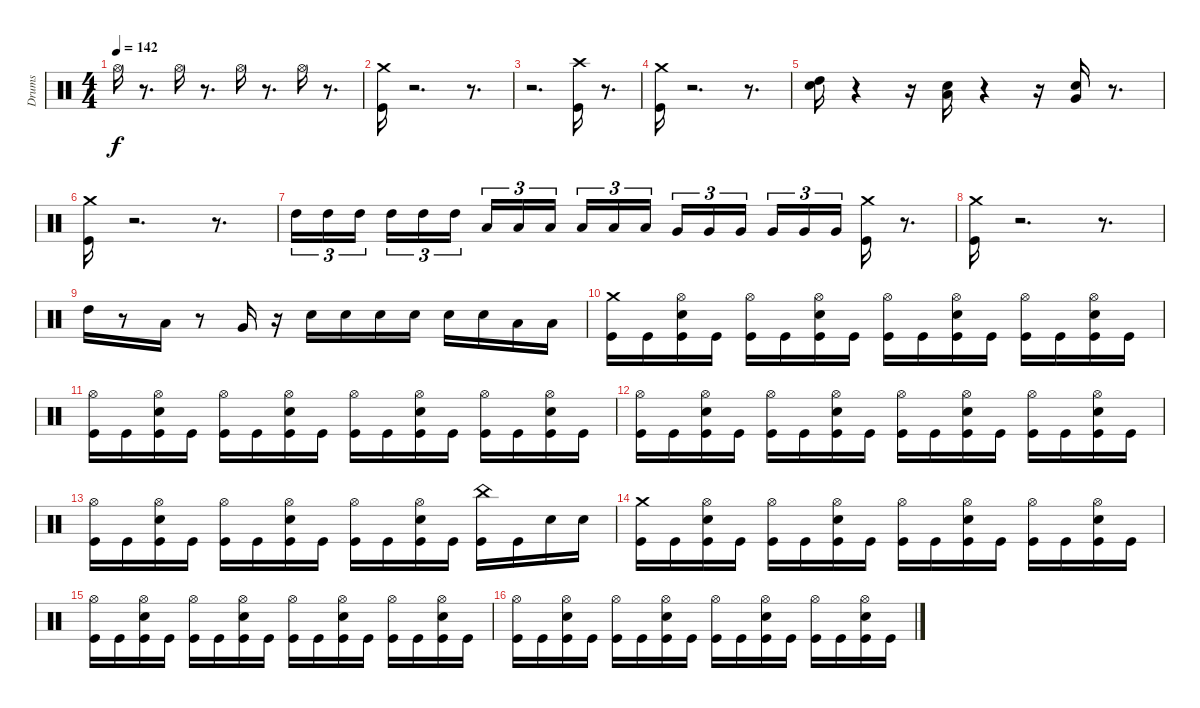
\track ("Drums" "Drums") {instrument percussion}
\staff {score}
\articulation defaults
\ts (4 4)
\tempo 142
\clef neutral
\ks c "Hi-Hat (open)".16{dy f}
r.8{d} "Hi-Hat (open)".16 r.8{d} "Hi-Hat (open)".16 r.8{d} "Hi-Hat (open)".16 r.8{d} |
("Kick (hit)" "Crash medium (hit)").16 r.2{d} r.8{d} |
r.2{d} ("Crash high (hit)" "Kick (hit)").16 r.8{d} |
("Crash medium (hit)" "Kick (hit)").16 r.2{d} r.8{d} |
("Electric Snare (hit)" "High Tom (hit)").16 r.4 r.16 ("Low Tom (hit)" "Electric Snare (hit)").16 r.4 r.16 ("Electric Snare (hit)" "Very Low Tom (hit)").16 r.8{d} |
("Crash medium (hit)" "Kick (hit)").16 r.2{d} r.8{d} |
"High Tom (hit)".16{tu (3 2)} "High Tom (hit)".16{tu (3 2)} "High Tom (hit)".16{tu (3 2)} "High Tom (hit)".16{tu (3 2)} "High Tom (hit)".16{tu (3 2)} "High Tom (hit)".16{tu (3 2)} "Low Tom (hit)".16{tu (3 2)} "Low Tom (hit)".16{tu (3 2)} "Low Tom (hit)".16{tu (3 2)} "Low Tom (hit)".16{tu (3 2)} "Low Tom (hit)".16{tu (3 2)} "Low Tom (hit)".16{tu (3 2)} "Very Low Tom (hit)".16{tu (3 2)} "Very Low Tom (hit)".16{tu (3 2)} "Very Low Tom (hit)".16{tu (3 2)} "Very Low Tom (hit)".16{tu (3 2)} "Very Low Tom (hit)".16{tu (3 2)} "Very Low Tom (hit)".16{tu (3 2)} ("Crash medium (hit)" "Kick (hit)").16 r.8{d} |
("Crash medium (hit)" "Kick (hit)").16 r.2{d} r.8{d} |
"High Tom (hit)".16 r.8 "Low Tom (hit)".16 r.8 "Very Low Tom (hit)".16 r.16 "Electric Snare (hit)".16 "Electric Snare (hit)".16 "Electric Snare (hit)".16 "Electric Snare (hit)".16 "Electric Snare (hit)".16 "Electric Snare (hit)".16 "Low Tom (hit)".16 "Low Tom (hit)".16 |
("Crash medium (hit)" "Kick (hit)").16 "Kick (hit)".16 ("Electric Snare (hit)" "Hi-Hat (open)" "Kick (hit)").16 "Kick (hit)".16 ("Hi-Hat (open)" "Kick (hit)").16 "Kick (hit)".16 ("Electric Snare (hit)" "Hi-Hat (open)" "Kick (hit)").16 "Kick (hit)".16 ("Hi-Hat (open)" "Kick (hit)").16 "Kick (hit)".16 ("Electric Snare (hit)" "Hi-Hat (open)" "Kick (hit)").16 "Kick (hit)".16 ("Hi-Hat (open)" "Kick (hit)").16 "Kick (hit)".16 ("Electric Snare (hit)" "Hi-Hat (open)" "Kick (hit)").16 "Kick (hit)".16 |
("Hi-Hat (open)" "Kick (hit)").16 "Kick (hit)".16 ("Electric Snare (hit)" "Hi-Hat (open)" "Kick (hit)").16 "Kick (hit)".16 ("Hi-Hat (open)" "Kick (hit)").16 "Kick (hit)".16 ("Electric Snare (hit)" "Hi-Hat (open)" "Kick (hit)").16 "Kick (hit)".16 ("Hi-Hat (open)" "Kick (hit)").16 "Kick (hit)".16 ("Electric Snare (hit)" "Hi-Hat (open)" "Kick (hit)").16 "Kick (hit)".16 ("Hi-Hat (open)" "Kick (hit)").16 "Kick (hit)".16 ("Electric Snare (hit)" "Hi-Hat (open)" "Kick (hit)").16 "Kick (hit)".16 |
("Hi-Hat (open)" "Kick (hit)").16 "Kick (hit)".16 ("Electric Snare (hit)" "Hi-Hat (open)" "Kick (hit)").16 "Kick (hit)".16 ("Hi-Hat (open)" "Kick (hit)").16 "Kick (hit)".16 ("Electric Snare (hit)" "Hi-Hat (open)" "Kick (hit)").16 "Kick (hit)".16 ("Hi-Hat (open)" "Kick (hit)").16 "Kick (hit)".16 ("Electric Snare (hit)" "Hi-Hat (open)" "Kick (hit)").16 "Kick (hit)".16 ("Hi-Hat (open)" "Kick (hit)").16 "Kick (hit)".16 ("Electric Snare (hit)" "Hi-Hat (open)" "Kick (hit)").16 "Kick (hit)".16 |
("Hi-Hat (open)" "Kick (hit)").16 "Kick (hit)".16 ("Electric Snare (hit)" "Hi-Hat (open)" "Kick (hit)").16 "Kick (hit)".16 ("Hi-Hat (open)" "Kick (hit)").16 "Kick (hit)".16 ("Electric Snare (hit)" "Hi-Hat (open)" "Kick (hit)").16 "Kick (hit)".16 ("Hi-Hat (open)" "Kick (hit)").16 "Kick (hit)".16 ("Electric Snare (hit)" "Hi-Hat (open)" "Kick (hit)").16 "Kick (hit)".16 ("China (hit)" "Kick (hit)").16 "Kick (hit)".16 "Electric Snare (hit)".16 "Electric Snare (hit)".16 |
("Crash medium (hit)" "Kick (hit)").16 "Kick (hit)".16 ("Electric Snare (hit)" "Hi-Hat (open)" "Kick (hit)").16 "Kick (hit)".16 ("Hi-Hat (open)" "Kick (hit)").16 "Kick (hit)".16 ("Electric Snare (hit)" "Hi-Hat (open)" "Kick (hit)").16 "Kick (hit)".16 ("Hi-Hat (open)" "Kick (hit)").16 "Kick (hit)".16 ("Electric Snare (hit)" "Hi-Hat (open)" "Kick (hit)").16 "Kick (hit)".16 ("Hi-Hat (open)" "Kick (hit)").16 "Kick (hit)".16 ("Electric Snare (hit)" "Hi-Hat (open)" "Kick (hit)").16 "Kick (hit)".16 |
("Hi-Hat (open)" "Kick (hit)").16 "Kick (hit)".16 ("Electric Snare (hit)" "Hi-Hat (open)" "Kick (hit)").16 "Kick (hit)".16 ("Hi-Hat (open)" "Kick (hit)").16 "Kick (hit)".16 ("Electric Snare (hit)" "Hi-Hat (open)" "Kick (hit)").16 "Kick (hit)".16 ("Hi-Hat (open)" "Kick (hit)").16 "Kick (hit)".16 ("Electric Snare (hit)" "Hi-Hat (open)" "Kick (hit)").16 "Kick (hit)".16 ("Hi-Hat (open)" "Kick (hit)").16 "Kick (hit)".16 ("Electric Snare (hit)" "Hi-Hat (open)" "Kick (hit)").16 "Kick (hit)".16 |
("Hi-Hat (open)" "Kick (hit)").16 "Kick (hit)".16 ("Electric Snare (hit)" "Hi-Hat (open)" "Kick (hit)").16 "Kick (hit)".16 ("Hi-Hat (open)" "Kick (hit)").16 "Kick (hit)".16 ("Electric Snare (hit)" "Hi-Hat (open)" "Kick (hit)").16 "Kick (hit)".16 ("Hi-Hat (open)" "Kick (hit)").16 "Kick (hit)".16 ("Electric Snare (hit)" "Hi-Hat (open)" "Kick (hit)").16 "Kick (hit)".16 ("Hi-Hat (open)" "Kick (hit)").16 "Kick (hit)".16 ("Electric Snare (hit)" "Hi-Hat (open)" "Kick (hit)").16 "Kick (hit)".16
